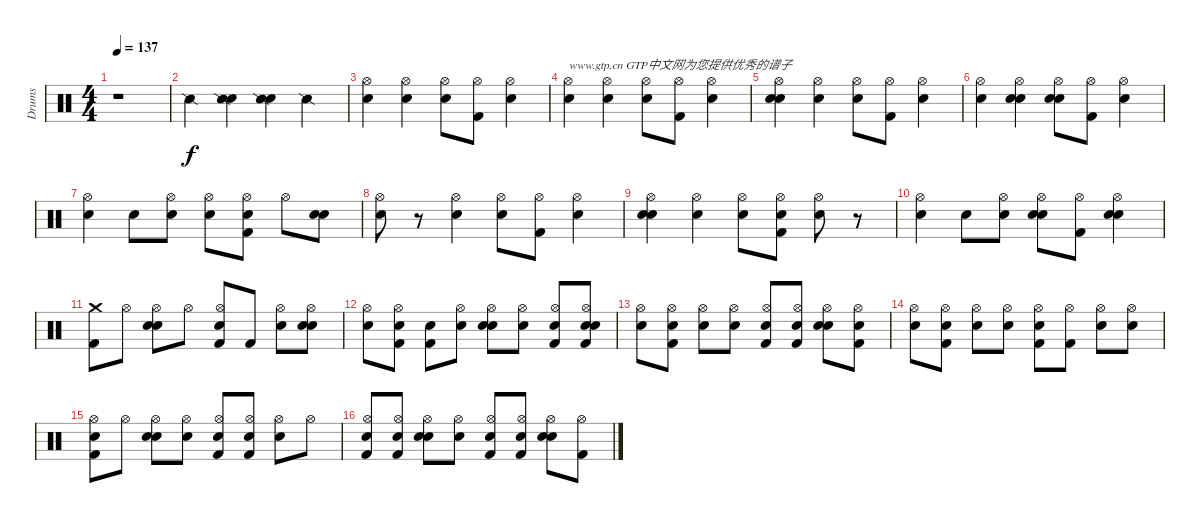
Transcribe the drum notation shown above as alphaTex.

\track ("Drums" "Drums") {instrument percussion}
\staff {score}
\articulation defaults
\ts (4 4)
\tempo 137
\clef neutral
\ks c
r.1{dy f} |
"Snare (side stick) 2".4 ("Snare (hit)" "Snare (side stick) 2").4 ("Snare (hit)" "Snare (side stick) 2").4 "Snare (side stick) 2".4 |
("Electric Snare (hit)" "Hi-Hat (open)").4 ("Electric Snare (hit)" "Hi-Hat (open)").4 ("Hi-Hat (open)" "Electric Snare (hit)").8 ("Kick (hit) 2" "Hi-Hat (open)").8 ("Hi-Hat (open)" "Electric Snare (hit)").4 |
("Hi-Hat (open)" "Electric Snare (hit)").4{txt "www.gtp.cn GTP中文网为您提供优秀的谱子"} ("Hi-Hat (open)" "Electric Snare (hit)").4 ("Electric Snare (hit)" "Hi-Hat (open)").8 ("Kick (hit) 2" "Hi-Hat (open)").8 ("Electric Snare (hit)" "Hi-Hat (open)").4 |
("Snare (hit)" "Hi-Hat (open)" "Electric Snare (hit)").4 ("Hi-Hat (open)" "Electric Snare (hit)").4 ("Hi-Hat (open)" "Electric Snare (hit)").8 ("Hi-Hat (open)" "Kick (hit) 2").8 ("Hi-Hat (open)" "Electric Snare (hit)").4 |
("Electric Snare (hit)" "Hi-Hat (open)").4 ("Snare (hit)" "Electric Snare (hit)" "Hi-Hat (open)").4 ("Snare (hit)" "Electric Snare (hit)" "Hi-Hat (open)").8 ("Kick (hit) 2" "Hi-Hat (open)").8 ("Electric Snare (hit)" "Hi-Hat (open)").4 |
("Hi-Hat (open)" "Electric Snare (hit)").4 "Electric Snare (hit)".8 ("Snare (hit)" "Hi-Hat (open)").8 ("Electric Snare (hit)" "Hi-Hat (open)").8 ("Snare (hit)" "Kick (hit) 2" "Hi-Hat (open)").8 "Hi-Hat (open)".8 ("Snare (hit)" "Electric Snare (hit)").8 |
("Electric Snare (hit)" "Hi-Hat (open)").8 r.8 ("Electric Snare (hit)" "Hi-Hat (open)").4 ("Electric Snare (hit)" "Hi-Hat (open)").8 ("Hi-Hat (open)" "Kick (hit) 2").8 ("Electric Snare (hit)" "Hi-Hat (open)").4 |
("Snare (hit)" "Electric Snare (hit)" "Hi-Hat (open)").4 ("Electric Snare (hit)" "Hi-Hat (open)").4 ("Electric Snare (hit)" "Hi-Hat (open)").8 ("Snare (hit)" "Kick (hit) 2" "Hi-Hat (open)").8 ("Electric Snare (hit)" "Hi-Hat (open)").8 r.8 |
("Hi-Hat (open)" "Electric Snare (hit)").4 "Electric Snare (hit)".8 ("Snare (hit)" "Hi-Hat (open)").8 ("Snare (hit)" "Electric Snare (hit)" "Hi-Hat (open)").8 ("Kick (hit) 2" "Hi-Hat (open)").8 ("Snare (hit)" "Hi-Hat (open)" "Electric Snare (hit)").4 |
("Crash medium (hit)" "Kick (hit) 2").8 "Hi-Hat (open)".8 ("Snare (hit)" "Hi-Hat (open)" "Electric Snare (hit)").8 "Hi-Hat (open)".8 ("Snare (hit)" "Hi-Hat (open)" "Kick (hit) 2").8 "Kick (hit) 2".8 ("Snare (hit)" "Hi-Hat (open)").8 ("Snare (hit)" "Electric Snare (hit)" "Hi-Hat (open)").8 |
("Snare (hit)" "Hi-Hat (open)").8 ("Snare (hit)" "Kick (hit) 2" "Hi-Hat (open)").8 ("Snare (hit)" "Kick (hit) 2").8 ("Snare (hit)" "Hi-Hat (open)").8 ("Snare (hit)" "Electric Snare (hit)" "Hi-Hat (open)").8 ("Snare (hit)" "Hi-Hat (open)").8 ("Snare (hit)" "Hi-Hat (open)" "Kick (hit) 2").8 ("Snare (hit)" "Hi-Hat (open)" "Electric Snare (hit)" "Kick (hit) 2").8 |
("Snare (hit)" "Hi-Hat (open)").8 ("Snare (hit)" "Hi-Hat (open)" "Kick (hit) 2").8 ("Electric Snare (hit)" "Hi-Hat (open)").8 ("Snare (hit)" "Hi-Hat (open)").8 ("Snare (hit)" "Kick (hit) 2" "Hi-Hat (open)").8 ("Snare (hit)" "Kick (hit) 2" "Hi-Hat (open)").8 ("Snare (hit)" "Electric Snare (hit)" "Hi-Hat (open)").8 ("Snare (hit)" "Kick (hit) 2" "Hi-Hat (open)").8 |
("Snare (hit)" "Hi-Hat (open)").8 ("Snare (hit)" "Hi-Hat (open)" "Kick (hit) 2").8 ("Electric Snare (hit)" "Hi-Hat (open)").8 ("Snare (hit)" "Hi-Hat (open)").8 ("Snare (hit)" "Hi-Hat (open)" "Kick (hit) 2").8 ("Hi-Hat (open)" "Kick (hit) 2").8 ("Electric Snare (hit)" "Hi-Hat (open)").8 ("Snare (hit)" "Hi-Hat (open)").8 |
("Snare (hit)" "Hi-Hat (open)" "Kick (hit) 2").8 "Hi-Hat (open)".8 ("Snare (hit)" "Electric Snare (hit)" "Hi-Hat (open)").8 ("Snare (hit)" "Hi-Hat (open)").8 ("Snare (hit)" "Kick (hit) 2" "Hi-Hat (open)").8 ("Snare (hit)" "Hi-Hat (open)" "Kick (hit) 2").8 ("Hi-Hat (open)" "Electric Snare (hit)").8 "Hi-Hat (open)".8 |
("Snare (hit)" "Kick (hit) 2" "Hi-Hat (open)").8 ("Snare (hit)" "Kick (hit) 2" "Hi-Hat (open)").8 ("Snare (hit)" "Electric Snare (hit)" "Hi-Hat (open)").8 ("Snare (hit)" "Hi-Hat (open)").8 ("Snare (hit)" "Kick (hit) 2" "Hi-Hat (open)").8 ("Snare (hit)" "Kick (hit) 2" "Hi-Hat (open)").8 ("Snare (hit)" "Hi-Hat (open)" "Electric Snare (hit)").8 ("Hi-Hat (open)" "Kick (hit) 2").8
